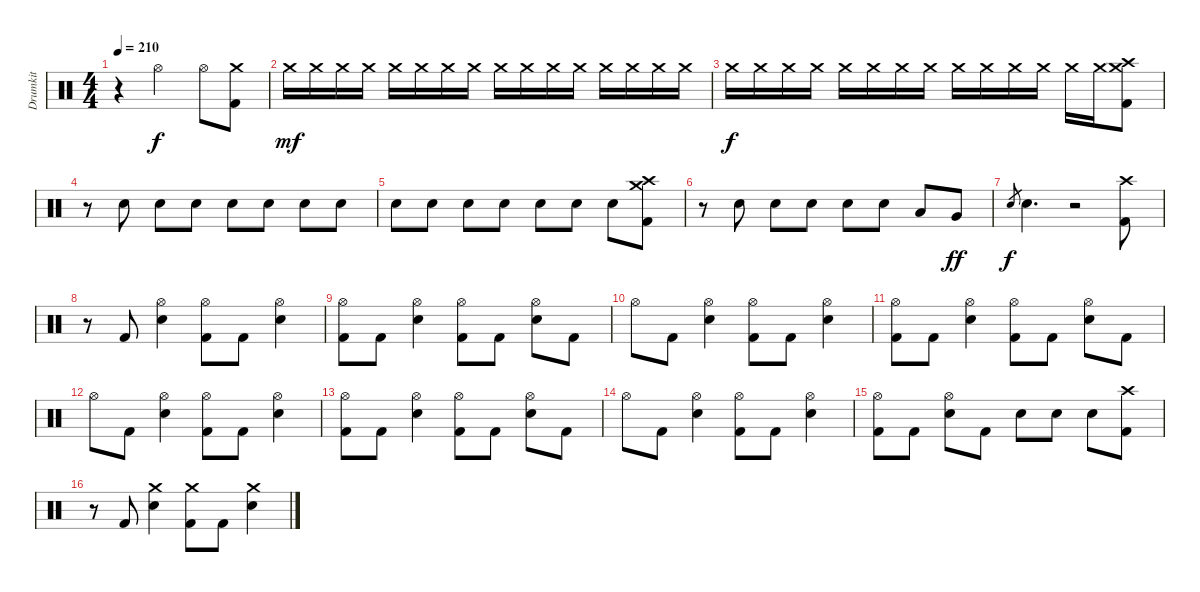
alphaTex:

\track ("Drumkit" "Drumkit") {instrument percussion}
\staff {score}
\articulation defaults
\ts (4 4)
\tempo 210
\clef neutral
\ks c
r.4{dy f} "Hi-Hat (open)".2 "Hi-Hat (open)".8 ("Crash medium (hit)" "Kick (hit) 2").8 |
"Crash medium (hit)".16{dy mf} "Crash medium (hit)".16 "Crash medium (hit)".16 "Crash medium (hit)".16 "Crash medium (hit)".16 "Crash medium (hit)".16 "Crash medium (hit)".16 "Crash medium (hit)".16 "Crash medium (hit)".16 "Crash medium (hit)".16 "Crash medium (hit)".16 "Crash medium (hit)".16 "Crash medium (hit)".16 "Crash medium (hit)".16 "Crash medium (hit)".16 "Crash medium (hit)".16 |
"Crash medium (hit)".16{dy f} "Crash medium (hit)".16 "Crash medium (hit)".16 "Crash medium (hit)".16 "Crash medium (hit)".16 "Crash medium (hit)".16 "Crash medium (hit)".16 "Crash medium (hit)".16 "Crash medium (hit)".16 "Crash medium (hit)".16 "Crash medium (hit)".16 "Crash medium (hit)".16 "Crash medium (hit)".16 "Crash medium (hit)".16 ("Crash high (hit)" "Crash medium (hit)" "Kick (hit) 2").8 |
r.8 "Electric Snare (hit)".8 "Electric Snare (hit)".8 "Electric Snare (hit)".8 "Electric Snare (hit)".8 "Electric Snare (hit)".8 "Electric Snare (hit)".8 "Electric Snare (hit)".8 |
"Electric Snare (hit)".8 "Electric Snare (hit)".8 "Electric Snare (hit)".8 "Electric Snare (hit)".8 "Electric Snare (hit)".8 "Electric Snare (hit)".8 "Electric Snare (hit)".8 ("Crash high (hit)" "Crash medium (hit)" "Kick (hit) 2").8 |
r.8 "Electric Snare (hit)".8 "Electric Snare (hit)".8 "Electric Snare (hit)".8 "Electric Snare (hit)".8 "Electric Snare (hit)".8 "Low Tom (hit)".8 "Very Low Tom (hit)".8{dy ff} |
"Electric Snare (hit)".8{gr dy f} "Electric Snare (hit)".4{d} r.2 ("Crash high (hit)" "Kick (hit) 2").8 |
r.8 "Kick (hit) 2".8 ("Hi-Hat (open)" "Electric Snare (hit)").4 ("Hi-Hat (open)" "Kick (hit) 2").8 "Kick (hit) 2".8 ("Hi-Hat (open)" "Electric Snare (hit)").4 |
("Hi-Hat (open)" "Kick (hit) 2").8 "Kick (hit) 2".8 ("Hi-Hat (open)" "Electric Snare (hit)").4 ("Hi-Hat (open)" "Kick (hit) 2").8 "Kick (hit) 2".8 ("Hi-Hat (open)" "Electric Snare (hit)").8 "Kick (hit) 2".8 |
"Hi-Hat (open)".8 "Kick (hit) 2".8 ("Hi-Hat (open)" "Electric Snare (hit)").4 ("Hi-Hat (open)" "Kick (hit) 2").8 "Kick (hit) 2".8 ("Hi-Hat (open)" "Electric Snare (hit)").4 |
("Hi-Hat (open)" "Kick (hit) 2").8 "Kick (hit) 2".8 ("Hi-Hat (open)" "Electric Snare (hit)").4 ("Hi-Hat (open)" "Kick (hit) 2").8 "Kick (hit) 2".8 ("Hi-Hat (open)" "Electric Snare (hit)").8 "Kick (hit) 2".8 |
"Hi-Hat (open)".8 "Kick (hit) 2".8 ("Hi-Hat (open)" "Electric Snare (hit)").4 ("Hi-Hat (open)" "Kick (hit) 2").8 "Kick (hit) 2".8 ("Hi-Hat (open)" "Electric Snare (hit)").4 |
("Hi-Hat (open)" "Kick (hit) 2").8 "Kick (hit) 2".8 ("Hi-Hat (open)" "Electric Snare (hit)").4 ("Hi-Hat (open)" "Kick (hit) 2").8 "Kick (hit) 2".8 ("Hi-Hat (open)" "Electric Snare (hit)").8 "Kick (hit) 2".8 |
"Hi-Hat (open)".8 "Kick (hit) 2".8 ("Hi-Hat (open)" "Electric Snare (hit)").4 ("Hi-Hat (open)" "Kick (hit) 2").8 "Kick (hit) 2".8 ("Hi-Hat (open)" "Electric Snare (hit)").4 |
("Hi-Hat (open)" "Kick (hit) 2").8 "Kick (hit) 2".8 ("Hi-Hat (open)" "Electric Snare (hit)").8 "Kick (hit) 2".8 "Electric Snare (hit)".8 "Electric Snare (hit)".8 "Electric Snare (hit)".8 ("Crash high (hit)" "Kick (hit) 2").8 |
r.8 "Kick (hit) 2".8 ("Crash medium (hit)" "Electric Snare (hit)").4 ("Crash medium (hit)" "Kick (hit) 2").8 "Kick (hit) 2".8 ("Crash medium (hit)" "Electric Snare (hit)").4
